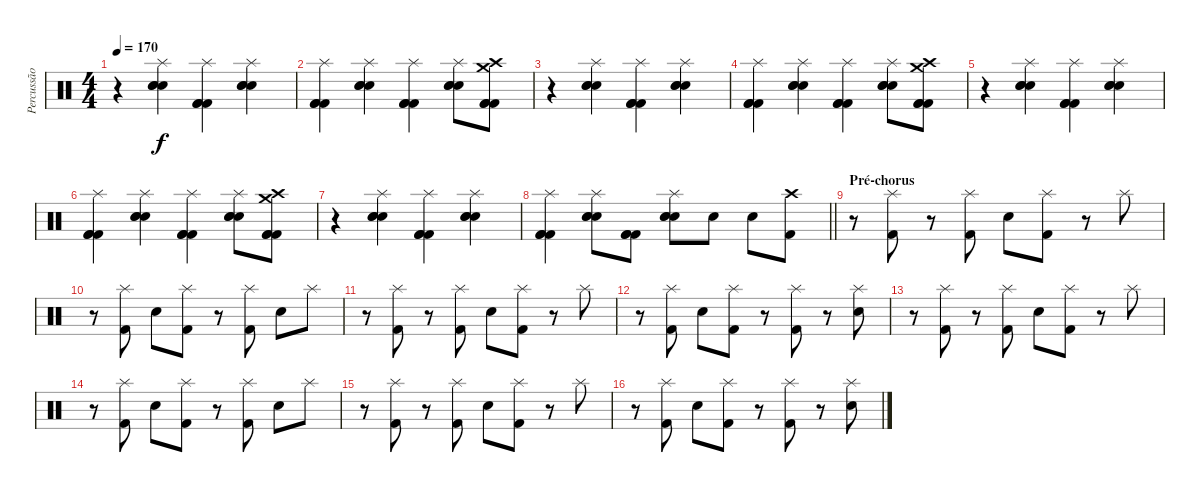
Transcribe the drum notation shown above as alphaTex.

\track ("Percussão" "Percussão") {instrument percussion}
\staff {score}
\articulation defaults
\ts (4 4)
\tempo 170
\clef neutral
\ks c
r.4{dy f} ("Splash (hit)" "Electric Snare (hit)" "Electric Snare (hit)" "Electric Snare (hit)").4 ("Splash (hit)" "Kick (hit) 2" "Kick (hit) 2" "Kick (hit) 2").4 ("Splash (hit)" "Electric Snare (hit)" "Electric Snare (hit)" "Electric Snare (hit)").4 |
("Splash (hit)" "Kick (hit) 2" "Kick (hit) 2" "Kick (hit) 2").4 ("Splash (hit)" "Electric Snare (hit)" "Electric Snare (hit)" "Electric Snare (hit)").4 ("Splash (hit)" "Kick (hit) 2" "Kick (hit) 2" "Kick (hit) 2").4 ("Splash (hit)" "Electric Snare (hit)" "Electric Snare (hit)" "Electric Snare (hit)").8 ("Crash high (hit)" "Crash medium (hit)" "Kick (hit) 2" "Kick (hit) 2" "Kick (hit) 2").8 |
r.4 ("Splash (hit)" "Electric Snare (hit)" "Electric Snare (hit)" "Electric Snare (hit)").4 ("Splash (hit)" "Kick (hit) 2" "Kick (hit) 2" "Kick (hit) 2").4 ("Splash (hit)" "Electric Snare (hit)" "Electric Snare (hit)" "Electric Snare (hit)").4 |
("Splash (hit)" "Kick (hit) 2" "Kick (hit) 2" "Kick (hit) 2").4 ("Splash (hit)" "Electric Snare (hit)" "Electric Snare (hit)" "Electric Snare (hit)").4 ("Splash (hit)" "Kick (hit) 2" "Kick (hit) 2" "Kick (hit) 2").4 ("Splash (hit)" "Electric Snare (hit)" "Electric Snare (hit)" "Electric Snare (hit)").8 ("Crash high (hit)" "Crash medium (hit)" "Kick (hit) 2" "Kick (hit) 2" "Kick (hit) 2").8 |
r.4 ("Splash (hit)" "Electric Snare (hit)" "Electric Snare (hit)" "Electric Snare (hit)").4 ("Splash (hit)" "Kick (hit) 2" "Kick (hit) 2" "Kick (hit) 2").4 ("Splash (hit)" "Electric Snare (hit)" "Electric Snare (hit)" "Electric Snare (hit)").4 |
("Splash (hit)" "Kick (hit) 2" "Kick (hit) 2" "Kick (hit) 2").4 ("Splash (hit)" "Electric Snare (hit)" "Electric Snare (hit)" "Electric Snare (hit)").4 ("Splash (hit)" "Kick (hit) 2" "Kick (hit) 2" "Kick (hit) 2").4 ("Splash (hit)" "Electric Snare (hit)" "Electric Snare (hit)" "Electric Snare (hit)").8 ("Crash high (hit)" "Crash medium (hit)" "Kick (hit) 2" "Kick (hit) 2" "Kick (hit) 2").8 |
r.4 ("Splash (hit)" "Electric Snare (hit)" "Electric Snare (hit)" "Electric Snare (hit)").4 ("Splash (hit)" "Kick (hit) 2" "Kick (hit) 2" "Kick (hit) 2").4 ("Splash (hit)" "Electric Snare (hit)" "Electric Snare (hit)" "Electric Snare (hit)").4 |
\barLineRight lightlight
("Splash (hit)" "Kick (hit) 2" "Kick (hit) 2" "Kick (hit) 2").4 ("Splash (hit)" "Electric Snare (hit)" "Electric Snare (hit)" "Electric Snare (hit)").8 ("Kick (hit) 2" "Kick (hit) 2" "Kick (hit) 2").8 ("Splash (hit)" "Electric Snare (hit)" "Electric Snare (hit)" "Electric Snare (hit)").8 "Electric Snare (hit)".8 "Electric Snare (hit)".8 ("Crash high (hit)" "Kick (hit) 2").8 |
\section ("" "Pré-chorus")
r.8 ("Splash (hit)" "Kick (hit) 2").8 r.8 ("Splash (hit)" "Kick (hit) 2").8 "Electric Snare (hit)".8 ("Splash (hit)" "Kick (hit) 2").8 r.8 "Splash (hit)".8 |
r.8 ("Splash (hit)" "Kick (hit) 2").8 "Electric Snare (hit)".8 ("Splash (hit)" "Kick (hit) 2").8 r.8 ("Splash (hit)" "Kick (hit) 2").8 "Electric Snare (hit)".8 "Splash (hit)".8 |
r.8 ("Splash (hit)" "Kick (hit) 2").8 r.8 ("Splash (hit)" "Kick (hit) 2").8 "Electric Snare (hit)".8 ("Splash (hit)" "Kick (hit) 2").8 r.8 "Splash (hit)".8 |
r.8 ("Splash (hit)" "Kick (hit) 2").8 "Electric Snare (hit)".8 ("Splash (hit)" "Kick (hit) 2").8 r.8 ("Splash (hit)" "Kick (hit) 2").8 r.8 ("Splash (hit)" "Electric Snare (hit)").8 |
r.8 ("Splash (hit)" "Kick (hit) 2").8 r.8 ("Splash (hit)" "Kick (hit) 2").8 "Electric Snare (hit)".8 ("Splash (hit)" "Kick (hit) 2").8 r.8 "Splash (hit)".8 |
r.8 ("Splash (hit)" "Kick (hit) 2").8 "Electric Snare (hit)".8 ("Splash (hit)" "Kick (hit) 2").8 r.8 ("Splash (hit)" "Kick (hit) 2").8 "Electric Snare (hit)".8 "Splash (hit)".8 |
r.8 ("Splash (hit)" "Kick (hit) 2").8 r.8 ("Splash (hit)" "Kick (hit) 2").8 "Electric Snare (hit)".8 ("Splash (hit)" "Kick (hit) 2").8 r.8 "Splash (hit)".8 |
r.8 ("Splash (hit)" "Kick (hit) 2").8 "Electric Snare (hit)".8 ("Splash (hit)" "Kick (hit) 2").8 r.8 ("Splash (hit)" "Kick (hit) 2").8 r.8 ("Splash (hit)" "Electric Snare (hit)").8
